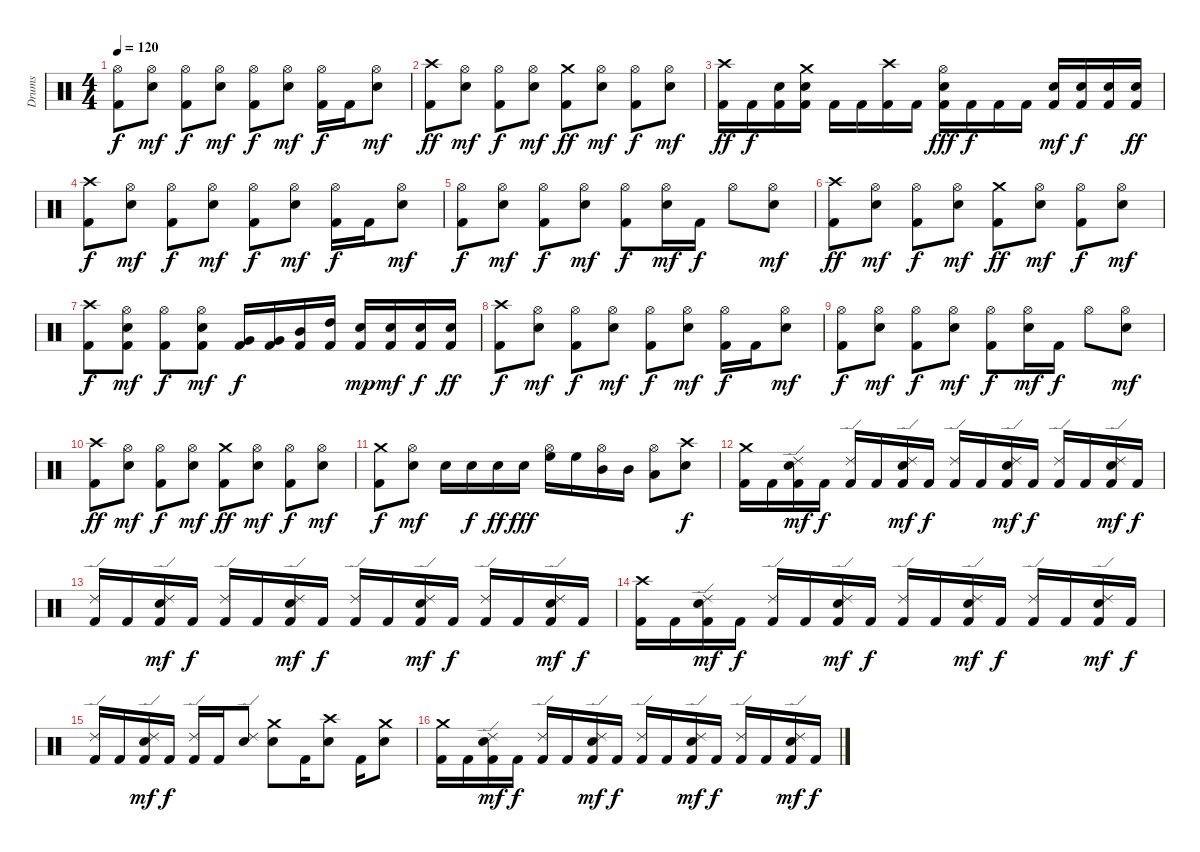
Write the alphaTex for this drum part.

\track ("Drums" "Drums") {instrument percussion}
\staff {score}
\articulation defaults
\ts (4 4)
\tempo 120
\clef neutral
\ks c
("Hi-Hat (open)" "Kick (hit) 2").8{dy f} ("Hi-Hat (open)" "Snare (hit) 2").8{dy mf} ("Hi-Hat (open)" "Kick (hit) 2").8{dy f} ("Hi-Hat (open)" "Snare (hit) 2").8{dy mf} ("Hi-Hat (open)" "Kick (hit) 2").8{dy f} ("Hi-Hat (open)" "Snare (hit) 2").8{dy mf} ("Hi-Hat (open)" "Kick (hit) 2").16{dy f} "Kick (hit) 2".16 ("Hi-Hat (open)" "Snare (hit) 2").8{dy mf} |
("Crash high (hit)" "Kick (hit) 2").8{dy ff} ("Hi-Hat (open)" "Snare (hit) 2").8{dy mf} ("Hi-Hat (open)" "Kick (hit) 2").8{dy f} ("Hi-Hat (open)" "Snare (hit) 2").8{dy mf} ("Crash medium (hit)" "Kick (hit) 2").8{dy ff} ("Hi-Hat (open)" "Snare (hit) 2").8{dy mf} ("Hi-Hat (open)" "Kick (hit) 2").8{dy f} ("Hi-Hat (open)" "Snare (hit) 2").8{dy mf} |
("Crash high (hit)" "Kick (hit) 2").16{dy ff} "Kick (hit) 2".16{dy f} ("Snare (hit) 2" "Kick (hit) 2").16 ("Crash medium (hit)" "Snare (hit) 2" "Kick (hit) 2").16 "Kick (hit) 2".16 "Kick (hit) 2".16 ("Crash high (hit)" "Kick (hit) 2").16 "Kick (hit) 2".16 ("Hi-Hat (open)" "Snare (hit) 2" "Kick (hit) 2").16{dy fff} "Kick (hit) 2".16{dy f} "Kick (hit) 2".16 "Kick (hit) 2".16 ("Snare (hit) 2" "Kick (hit) 2").16{dy mf} ("Snare (hit) 2" "Kick (hit) 2").16{dy f} ("Snare (hit) 2" "Kick (hit) 2").16 ("Snare (hit) 2" "Kick (hit) 2").16{dy ff} |
("Crash high (hit)" "Kick (hit) 2").8{dy f} ("Hi-Hat (open)" "Snare (hit) 2").8{dy mf} ("Hi-Hat (open)" "Kick (hit) 2").8{dy f} ("Hi-Hat (open)" "Snare (hit) 2").8{dy mf} ("Hi-Hat (open)" "Kick (hit) 2").8{dy f} ("Hi-Hat (open)" "Snare (hit) 2").8{dy mf} ("Hi-Hat (open)" "Kick (hit) 2").16{dy f} "Kick (hit) 2".16 ("Hi-Hat (open)" "Snare (hit) 2").8{dy mf} |
("Hi-Hat (open)" "Kick (hit) 2").8{dy f} ("Hi-Hat (open)" "Snare (hit) 2").8{dy mf} ("Hi-Hat (open)" "Kick (hit) 2").8{dy f} ("Hi-Hat (open)" "Snare (hit) 2").8{dy mf} ("Hi-Hat (open)" "Kick (hit) 2").8{dy f} ("Hi-Hat (open)" "Snare (hit) 2").16{dy mf} "Kick (hit) 2".16{dy f} "Hi-Hat (open)".8 ("Hi-Hat (open)" "Snare (hit) 2").8{dy mf} |
("Crash high (hit)" "Kick (hit) 2").8{dy ff} ("Hi-Hat (open)" "Snare (hit) 2").8{dy mf} ("Hi-Hat (open)" "Kick (hit) 2").8{dy f} ("Hi-Hat (open)" "Snare (hit) 2").8{dy mf} ("Crash medium (hit)" "Kick (hit) 2").8{dy ff} ("Hi-Hat (open)" "Snare (hit) 2").8{dy mf} ("Hi-Hat (open)" "Kick (hit) 2").8{dy f} ("Hi-Hat (open)" "Snare (hit) 2").8{dy mf} |
("Crash high (hit)" "Kick (hit) 2").8{dy f} ("Hi-Hat (open)" "Snare (hit) 2" "Kick (hit) 2").8{dy mf} ("Hi-Hat (open)" "Kick (hit) 2").8{dy f} ("Hi-Hat (open)" "Snare (hit) 2" "Kick (hit) 2").8{dy mf} ("Very Low Tom (hit)" "Kick (hit) 2").16{dy f} ("Very Low Tom (hit)" "Kick (hit) 2").16 ("Mid Tom (hit)" "Kick (hit) 2").16 ("High Tom (hit)" "Kick (hit) 2").16 ("Snare (hit) 2" "Kick (hit) 2").16{dy mp} ("Snare (hit) 2" "Kick (hit) 2").16{dy mf} ("Snare (hit) 2" "Kick (hit) 2").16{dy f} ("Snare (hit) 2" "Kick (hit) 2").16{dy ff} |
("Crash high (hit)" "Kick (hit) 2").8{dy f} ("Hi-Hat (open)" "Snare (hit) 2").8{dy mf} ("Hi-Hat (open)" "Kick (hit) 2").8{dy f} ("Hi-Hat (open)" "Snare (hit) 2").8{dy mf} ("Hi-Hat (open)" "Kick (hit) 2").8{dy f} ("Hi-Hat (open)" "Snare (hit) 2").8{dy mf} ("Hi-Hat (open)" "Kick (hit) 2").16{dy f} "Kick (hit) 2".16 ("Hi-Hat (open)" "Snare (hit) 2").8{dy mf} |
("Hi-Hat (open)" "Kick (hit) 2").8{dy f} ("Hi-Hat (open)" "Snare (hit) 2").8{dy mf} ("Hi-Hat (open)" "Kick (hit) 2").8{dy f} ("Hi-Hat (open)" "Snare (hit) 2").8{dy mf} ("Hi-Hat (open)" "Kick (hit) 2").8{dy f} ("Hi-Hat (open)" "Snare (hit) 2").16{dy mf} "Kick (hit) 2".16{dy f} "Hi-Hat (open)".8 ("Hi-Hat (open)" "Snare (hit) 2").8{dy mf} |
("Crash high (hit)" "Kick (hit) 2").8{dy ff} ("Hi-Hat (open)" "Snare (hit) 2").8{dy mf} ("Hi-Hat (open)" "Kick (hit) 2").8{dy f} ("Hi-Hat (open)" "Snare (hit) 2").8{dy mf} ("Crash medium (hit)" "Kick (hit) 2").8{dy ff} ("Hi-Hat (open)" "Snare (hit) 2").8{dy mf} ("Hi-Hat (open)" "Kick (hit) 2").8{dy f} ("Hi-Hat (open)" "Snare (hit) 2").8{dy mf} |
("Crash medium (hit)" "Kick (hit) 2").8{dy f} ("Hi-Hat (open)" "Snare (hit) 2").8{dy mf} "Snare (hit) 2".16 "Snare (hit) 2".16{dy f} "Snare (hit) 2".16{dy ff} "Snare (hit) 2".16{dy fff} ("Hi-Hat (open)" "High Floor Tom (hit)").16 "High Floor Tom (hit)".16 ("Hi-Hat (open)" "Mid Tom (hit)").16 "Mid Tom (hit)".16 ("Hi-Hat (open)" "Low Tom (hit)").8 ("Crash high (hit)" "Snare (hit) 2").8{dy f} |
("Crash medium (hit)" "Kick (hit) 2").16 "Kick (hit) 2".16 ("Ride (edge) 2" "Snare (hit) 2" "Kick (hit) 2").16{dy mf} "Kick (hit) 2".16{dy f} ("Ride (edge) 2" "Kick (hit) 2").16 "Kick (hit) 2".16 ("Ride (edge) 2" "Snare (hit) 2" "Kick (hit) 2").16{dy mf} "Kick (hit) 2".16{dy f} ("Ride (edge) 2" "Kick (hit) 2").16 "Kick (hit) 2".16 ("Ride (edge) 2" "Snare (hit) 2" "Kick (hit) 2").16{dy mf} "Kick (hit) 2".16{dy f} ("Ride (edge) 2" "Kick (hit) 2").16 "Kick (hit) 2".16 ("Ride (edge) 2" "Snare (hit) 2" "Kick (hit) 2").16{dy mf} "Kick (hit) 2".16{dy f} |
("Ride (edge) 2" "Kick (hit) 2").16 "Kick (hit) 2".16 ("Ride (edge) 2" "Snare (hit) 2" "Kick (hit) 2").16{dy mf} "Kick (hit) 2".16{dy f} ("Ride (edge) 2" "Kick (hit) 2").16 "Kick (hit) 2".16 ("Ride (edge) 2" "Snare (hit) 2" "Kick (hit) 2").16{dy mf} "Kick (hit) 2".16{dy f} ("Ride (edge) 2" "Kick (hit) 2").16 "Kick (hit) 2".16 ("Ride (edge) 2" "Snare (hit) 2" "Kick (hit) 2").16{dy mf} "Kick (hit) 2".16{dy f} ("Ride (edge) 2" "Kick (hit) 2").16 "Kick (hit) 2".16 ("Ride (edge) 2" "Snare (hit) 2" "Kick (hit) 2").16{dy mf} "Kick (hit) 2".16{dy f} |
("Crash high (hit)" "Kick (hit) 2").16 "Kick (hit) 2".16 ("Ride (edge) 2" "Snare (hit) 2" "Kick (hit) 2").16{dy mf} "Kick (hit) 2".16{dy f} ("Ride (edge) 2" "Kick (hit) 2").16 "Kick (hit) 2".16 ("Ride (edge) 2" "Snare (hit) 2" "Kick (hit) 2").16{dy mf} "Kick (hit) 2".16{dy f} ("Ride (edge) 2" "Kick (hit) 2").16 "Kick (hit) 2".16 ("Ride (edge) 2" "Snare (hit) 2" "Kick (hit) 2").16{dy mf} "Kick (hit) 2".16{dy f} ("Ride (edge) 2" "Kick (hit) 2").16 "Kick (hit) 2".16 ("Ride (edge) 2" "Snare (hit) 2" "Kick (hit) 2").16{dy mf} "Kick (hit) 2".16{dy f} |
("Ride (edge) 2" "Kick (hit) 2").16 "Kick (hit) 2".16 ("Ride (edge) 2" "Snare (hit) 2" "Kick (hit) 2").16{dy mf} "Kick (hit) 2".16{dy f} ("Ride (edge) 2" "Kick (hit) 2").16 "Kick (hit) 2".16 ("Ride (edge) 2" "Snare (hit) 2").8 ("Crash medium (hit)" "Snare (hit) 2").8 "Kick (hit) 2".16 ("Crash high (hit)" "Snare (hit) 2").8 "Kick (hit) 2".16 ("Crash medium (hit)" "Snare (hit) 2").8 |
("Crash medium (hit)" "Kick (hit) 2").16 "Kick (hit) 2".16 ("Ride (edge) 2" "Snare (hit) 2" "Kick (hit) 2").16{dy mf} "Kick (hit) 2".16{dy f} ("Ride (edge) 2" "Kick (hit) 2").16 "Kick (hit) 2".16 ("Ride (edge) 2" "Snare (hit) 2" "Kick (hit) 2").16{dy mf} "Kick (hit) 2".16{dy f} ("Ride (edge) 2" "Kick (hit) 2").16 "Kick (hit) 2".16 ("Ride (edge) 2" "Snare (hit) 2" "Kick (hit) 2").16{dy mf} "Kick (hit) 2".16{dy f} ("Ride (edge) 2" "Kick (hit) 2").16 "Kick (hit) 2".16 ("Ride (edge) 2" "Snare (hit) 2" "Kick (hit) 2").16{dy mf} "Kick (hit) 2".16{dy f}
